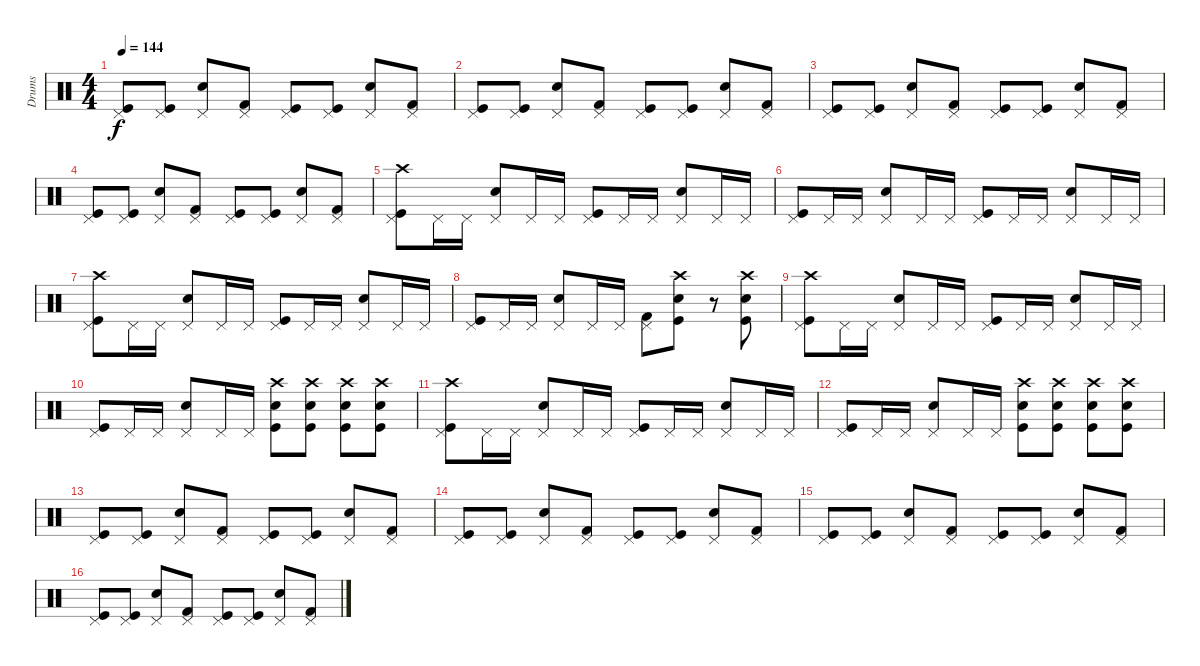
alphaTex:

\track ("Drums" "Drums") {instrument percussion}
\staff {score}
\articulation defaults
\ts (4 4)
\tempo 144
\clef neutral
\ks c
("Pedal Hi-Hat (hit)" "Kick (hit)").8{dy f} ("Pedal Hi-Hat (hit)" "Kick (hit)").8 ("Pedal Hi-Hat (hit)" "Snare (hit) 2").8 ("Pedal Hi-Hat (hit)" "Kick (hit) 2").8 ("Pedal Hi-Hat (hit)" "Kick (hit)").8 ("Pedal Hi-Hat (hit)" "Kick (hit)").8 ("Pedal Hi-Hat (hit)" "Snare (hit) 2").8 ("Pedal Hi-Hat (hit)" "Kick (hit) 2").8 |
("Pedal Hi-Hat (hit)" "Kick (hit)").8 ("Pedal Hi-Hat (hit)" "Kick (hit)").8 ("Pedal Hi-Hat (hit)" "Snare (hit) 2").8 ("Pedal Hi-Hat (hit)" "Kick (hit) 2").8 ("Pedal Hi-Hat (hit)" "Kick (hit)").8 ("Pedal Hi-Hat (hit)" "Kick (hit)").8 ("Pedal Hi-Hat (hit)" "Snare (hit) 2").8 ("Pedal Hi-Hat (hit)" "Kick (hit) 2").8 |
("Pedal Hi-Hat (hit)" "Kick (hit)").8 ("Pedal Hi-Hat (hit)" "Kick (hit)").8 ("Pedal Hi-Hat (hit)" "Snare (hit) 2").8 ("Pedal Hi-Hat (hit)" "Kick (hit) 2").8 ("Pedal Hi-Hat (hit)" "Kick (hit)").8 ("Pedal Hi-Hat (hit)" "Kick (hit)").8 ("Pedal Hi-Hat (hit)" "Snare (hit) 2").8 ("Pedal Hi-Hat (hit)" "Kick (hit) 2").8 |
("Pedal Hi-Hat (hit)" "Kick (hit)").8 ("Pedal Hi-Hat (hit)" "Kick (hit)").8 ("Pedal Hi-Hat (hit)" "Snare (hit) 2").8 ("Pedal Hi-Hat (hit)" "Kick (hit) 2").8 ("Pedal Hi-Hat (hit)" "Kick (hit)").8 ("Pedal Hi-Hat (hit)" "Kick (hit)").8 ("Pedal Hi-Hat (hit)" "Snare (hit) 2").8 ("Pedal Hi-Hat (hit)" "Kick (hit) 2").8 |
("Pedal Hi-Hat (hit)" "Kick (hit)" "Crash high (hit)").8 "Pedal Hi-Hat (hit)".16 "Pedal Hi-Hat (hit)".16 ("Pedal Hi-Hat (hit)" "Snare (hit) 2").8 "Pedal Hi-Hat (hit)".16 "Pedal Hi-Hat (hit)".16 ("Pedal Hi-Hat (hit)" "Kick (hit)").8 "Pedal Hi-Hat (hit)".16 "Pedal Hi-Hat (hit)".16 ("Pedal Hi-Hat (hit)" "Snare (hit) 2").8 "Pedal Hi-Hat (hit)".16 "Pedal Hi-Hat (hit)".16 |
("Pedal Hi-Hat (hit)" "Kick (hit)").8 "Pedal Hi-Hat (hit)".16 "Pedal Hi-Hat (hit)".16 ("Pedal Hi-Hat (hit)" "Snare (hit) 2").8 "Pedal Hi-Hat (hit)".16 "Pedal Hi-Hat (hit)".16 ("Pedal Hi-Hat (hit)" "Kick (hit)").8 "Pedal Hi-Hat (hit)".16 "Pedal Hi-Hat (hit)".16 ("Pedal Hi-Hat (hit)" "Snare (hit) 2").8 "Pedal Hi-Hat (hit)".16 "Pedal Hi-Hat (hit)".16 |
("Pedal Hi-Hat (hit)" "Kick (hit)" "Crash high (hit)").8 "Pedal Hi-Hat (hit)".16 "Pedal Hi-Hat (hit)".16 ("Pedal Hi-Hat (hit)" "Snare (hit) 2").8 "Pedal Hi-Hat (hit)".16 "Pedal Hi-Hat (hit)".16 ("Pedal Hi-Hat (hit)" "Kick (hit)").8 "Pedal Hi-Hat (hit)".16 "Pedal Hi-Hat (hit)".16 ("Pedal Hi-Hat (hit)" "Snare (hit) 2").8 "Pedal Hi-Hat (hit)".16 "Pedal Hi-Hat (hit)".16 |
("Pedal Hi-Hat (hit)" "Kick (hit)").8 "Pedal Hi-Hat (hit)".16 "Pedal Hi-Hat (hit)".16 ("Pedal Hi-Hat (hit)" "Snare (hit) 2").8 "Pedal Hi-Hat (hit)".16 "Pedal Hi-Hat (hit)".16 ("Pedal Hi-Hat (hit)" "Kick (hit) 2").8 ("Crash high (hit)" "Kick (hit)" "Snare (hit) 2").8 r.8 ("Crash high (hit)" "Kick (hit)" "Snare (hit) 2").8 |
("Pedal Hi-Hat (hit)" "Kick (hit)" "Crash high (hit)").8 "Pedal Hi-Hat (hit)".16 "Pedal Hi-Hat (hit)".16 ("Pedal Hi-Hat (hit)" "Snare (hit) 2").8 "Pedal Hi-Hat (hit)".16 "Pedal Hi-Hat (hit)".16 ("Pedal Hi-Hat (hit)" "Kick (hit)").8 "Pedal Hi-Hat (hit)".16 "Pedal Hi-Hat (hit)".16 ("Pedal Hi-Hat (hit)" "Snare (hit) 2").8 "Pedal Hi-Hat (hit)".16 "Pedal Hi-Hat (hit)".16 |
("Pedal Hi-Hat (hit)" "Kick (hit)").8 "Pedal Hi-Hat (hit)".16 "Pedal Hi-Hat (hit)".16 ("Pedal Hi-Hat (hit)" "Snare (hit) 2").8 "Pedal Hi-Hat (hit)".16 "Pedal Hi-Hat (hit)".16 ("Snare (hit) 2" "Kick (hit)" "Crash high (hit)").8 ("Snare (hit) 2" "Kick (hit)" "Crash high (hit)").8 ("Snare (hit) 2" "Kick (hit)" "Crash high (hit)").8 ("Snare (hit) 2" "Kick (hit)" "Crash high (hit)").8 |
("Pedal Hi-Hat (hit)" "Kick (hit)" "Crash high (hit)").8 "Pedal Hi-Hat (hit)".16 "Pedal Hi-Hat (hit)".16 ("Pedal Hi-Hat (hit)" "Snare (hit) 2").8 "Pedal Hi-Hat (hit)".16 "Pedal Hi-Hat (hit)".16 ("Pedal Hi-Hat (hit)" "Kick (hit)").8 "Pedal Hi-Hat (hit)".16 "Pedal Hi-Hat (hit)".16 ("Pedal Hi-Hat (hit)" "Snare (hit) 2").8 "Pedal Hi-Hat (hit)".16 "Pedal Hi-Hat (hit)".16 |
("Pedal Hi-Hat (hit)" "Kick (hit)").8 "Pedal Hi-Hat (hit)".16 "Pedal Hi-Hat (hit)".16 ("Pedal Hi-Hat (hit)" "Snare (hit) 2").8 "Pedal Hi-Hat (hit)".16 "Pedal Hi-Hat (hit)".16 ("Snare (hit) 2" "Kick (hit)" "Crash high (hit)").8 ("Snare (hit) 2" "Kick (hit)" "Crash high (hit)").8 ("Snare (hit) 2" "Kick (hit)" "Crash high (hit)").8 ("Snare (hit) 2" "Kick (hit)" "Crash high (hit)").8 |
("Pedal Hi-Hat (hit)" "Kick (hit)").8 ("Pedal Hi-Hat (hit)" "Kick (hit)").8 ("Pedal Hi-Hat (hit)" "Snare (hit) 2").8 ("Pedal Hi-Hat (hit)" "Kick (hit) 2").8 ("Pedal Hi-Hat (hit)" "Kick (hit)").8 ("Pedal Hi-Hat (hit)" "Kick (hit)").8 ("Pedal Hi-Hat (hit)" "Snare (hit) 2").8 ("Pedal Hi-Hat (hit)" "Kick (hit) 2").8 |
("Pedal Hi-Hat (hit)" "Kick (hit)").8 ("Pedal Hi-Hat (hit)" "Kick (hit)").8 ("Pedal Hi-Hat (hit)" "Snare (hit) 2").8 ("Pedal Hi-Hat (hit)" "Kick (hit) 2").8 ("Pedal Hi-Hat (hit)" "Kick (hit)").8 ("Pedal Hi-Hat (hit)" "Kick (hit)").8 ("Pedal Hi-Hat (hit)" "Snare (hit) 2").8 ("Pedal Hi-Hat (hit)" "Kick (hit) 2").8 |
("Pedal Hi-Hat (hit)" "Kick (hit)").8 ("Pedal Hi-Hat (hit)" "Kick (hit)").8 ("Pedal Hi-Hat (hit)" "Snare (hit) 2").8 ("Pedal Hi-Hat (hit)" "Kick (hit) 2").8 ("Pedal Hi-Hat (hit)" "Kick (hit)").8 ("Pedal Hi-Hat (hit)" "Kick (hit)").8 ("Pedal Hi-Hat (hit)" "Snare (hit) 2").8 ("Pedal Hi-Hat (hit)" "Kick (hit) 2").8 |
("Pedal Hi-Hat (hit)" "Kick (hit)").8 ("Pedal Hi-Hat (hit)" "Kick (hit)").8 ("Pedal Hi-Hat (hit)" "Snare (hit) 2").8 ("Pedal Hi-Hat (hit)" "Kick (hit) 2").8 ("Pedal Hi-Hat (hit)" "Kick (hit)").8 ("Pedal Hi-Hat (hit)" "Kick (hit)").8 ("Pedal Hi-Hat (hit)" "Snare (hit) 2").8 ("Pedal Hi-Hat (hit)" "Kick (hit) 2").8
